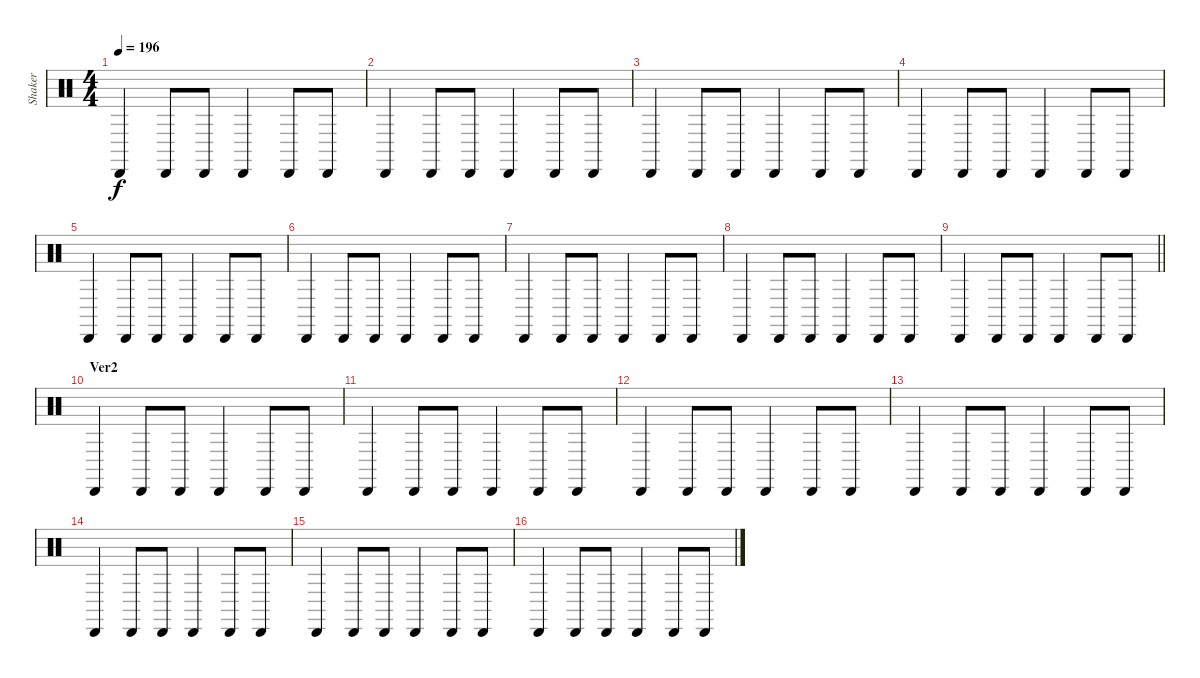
\track ("Shaker" "Shaker") {instrument percussion bank 126}
\staff {score}
\articulation defaults
\ts (4 4)
\tempo 196
\clef neutral
\ks c "Cabasa (hit)".4{dy f} "Cabasa (hit)".8 "Cabasa (hit)".8 "Cabasa (hit)".4 "Cabasa (hit)".8 "Cabasa (hit)".8
|
"Cabasa (hit)".4 "Cabasa (hit)".8 "Cabasa (hit)".8 "Cabasa (hit)".4 "Cabasa (hit)".8 "Cabasa (hit)".8 |
"Cabasa (hit)".4 "Cabasa (hit)".8 "Cabasa (hit)".8 "Cabasa (hit)".4 "Cabasa (hit)".8 "Cabasa (hit)".8 |
"Cabasa (hit)".4 "Cabasa (hit)".8 "Cabasa (hit)".8 "Cabasa (hit)".4 "Cabasa (hit)".8 "Cabasa (hit)".8 |
"Cabasa (hit)".4 "Cabasa (hit)".8 "Cabasa (hit)".8 "Cabasa (hit)".4 "Cabasa (hit)".8 "Cabasa (hit)".8 |
"Cabasa (hit)".4 "Cabasa (hit)".8 "Cabasa (hit)".8 "Cabasa (hit)".4 "Cabasa (hit)".8 "Cabasa (hit)".8 |
"Cabasa (hit)".4 "Cabasa (hit)".8 "Cabasa (hit)".8 "Cabasa (hit)".4 "Cabasa (hit)".8 "Cabasa (hit)".8 |
"Cabasa (hit)".4 "Cabasa (hit)".8 "Cabasa (hit)".8 "Cabasa (hit)".4 "Cabasa (hit)".8 "Cabasa (hit)".8 |
\barLineRight lightlight "Cabasa (hit)".4 "Cabasa (hit)".8 "Cabasa (hit)".8 "Cabasa (hit)".4 "Cabasa (hit)".8 "Cabasa (hit)".8
|
\section ("" "Ver2")
"Cabasa (hit)".4 "Cabasa (hit)".8 "Cabasa (hit)".8 "Cabasa (hit)".4 "Cabasa (hit)".8 "Cabasa (hit)".8 |
"Cabasa (hit)".4 "Cabasa (hit)".8 "Cabasa (hit)".8 "Cabasa (hit)".4 "Cabasa (hit)".8 "Cabasa (hit)".8 |
"Cabasa (hit)".4 "Cabasa (hit)".8 "Cabasa (hit)".8 "Cabasa (hit)".4 "Cabasa (hit)".8 "Cabasa (hit)".8 |
"Cabasa (hit)".4 "Cabasa (hit)".8 "Cabasa (hit)".8 "Cabasa (hit)".4 "Cabasa (hit)".8 "Cabasa (hit)".8 |
"Cabasa (hit)".4 "Cabasa (hit)".8 "Cabasa (hit)".8 "Cabasa (hit)".4 "Cabasa (hit)".8 "Cabasa (hit)".8 |
"Cabasa (hit)".4 "Cabasa (hit)".8 "Cabasa (hit)".8 "Cabasa (hit)".4 "Cabasa (hit)".8 "Cabasa (hit)".8 |
"Cabasa (hit)".4 "Cabasa (hit)".8 "Cabasa (hit)".8 "Cabasa (hit)".4 "Cabasa (hit)".8 "Cabasa (hit)".8
